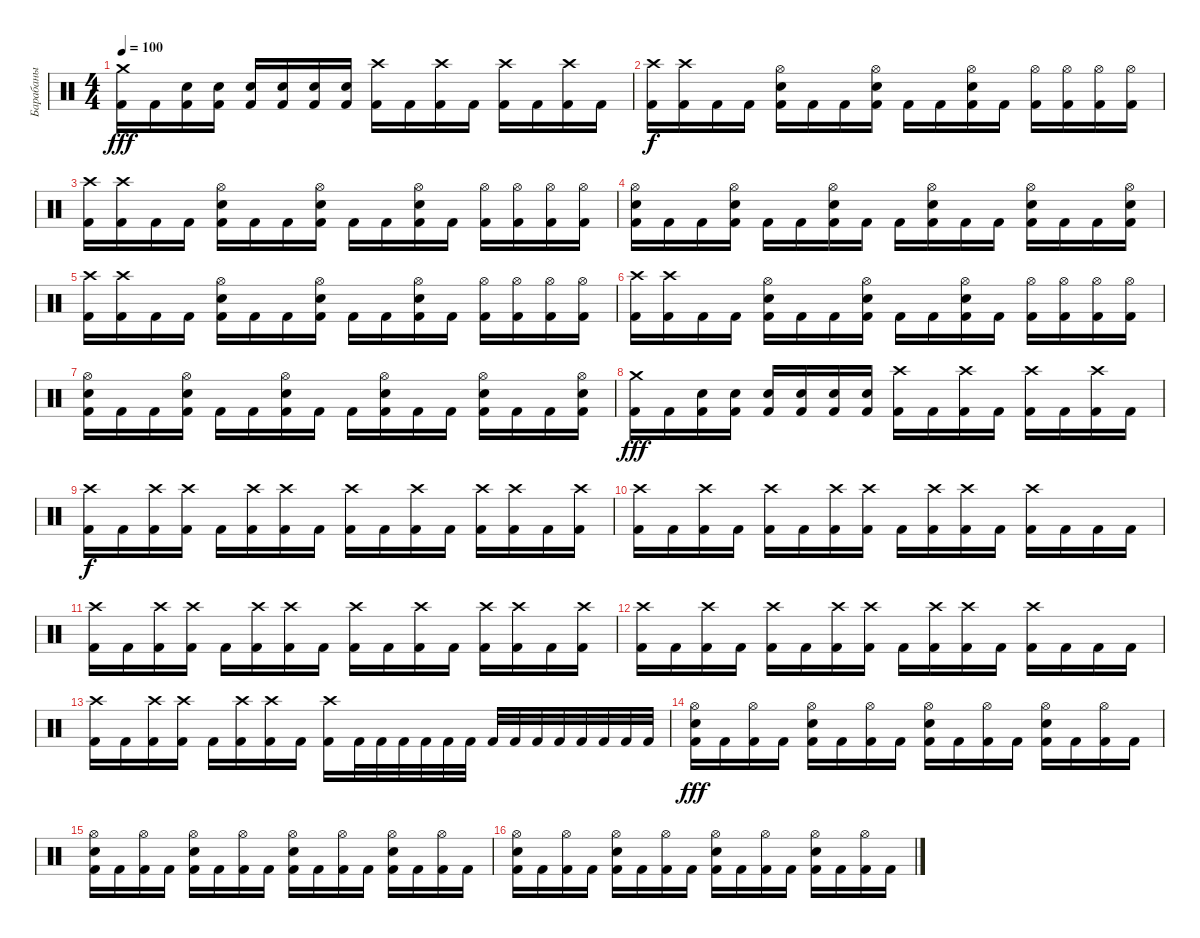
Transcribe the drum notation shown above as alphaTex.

\track ("Барабаны" "Барабаны") {instrument percussion}
\staff {score}
\articulation defaults
\ts (4 4)
\tempo 100
\clef neutral
\ks c
("Crash medium (hit)" "Kick (hit) 2").16{dy fff} "Kick (hit) 2".16 ("Electric Snare (hit)" "Kick (hit) 2").16 ("Electric Snare (hit)" "Kick (hit) 2").16 ("Electric Snare (hit)" "Kick (hit) 2").16 ("Electric Snare (hit)" "Kick (hit) 2").16 ("Electric Snare (hit)" "Kick (hit) 2").16 ("Electric Snare (hit)" "Kick (hit) 2").16 ("Crash high (hit)" "Kick (hit) 2").16 "Kick (hit) 2".16 ("Crash high (hit)" "Kick (hit) 2").16 "Kick (hit) 2".16 ("Crash high (hit)" "Kick (hit) 2").16 "Kick (hit) 2".16 ("Crash high (hit)" "Kick (hit) 2").16 "Kick (hit) 2".16 |
("Crash high (hit)" "Kick (hit) 2").16{dy f} ("Crash high (hit)" "Kick (hit) 2").16 "Kick (hit) 2".16 "Kick (hit) 2".16 ("Hi-Hat (open)" "Electric Snare (hit)" "Kick (hit) 2").16 "Kick (hit) 2".16 "Kick (hit) 2".16 ("Hi-Hat (open)" "Electric Snare (hit)" "Kick (hit) 2").16 "Kick (hit) 2".16 "Kick (hit) 2".16 ("Hi-Hat (open)" "Electric Snare (hit)" "Kick (hit) 2").16 "Kick (hit) 2".16 ("Hi-Hat (open)" "Kick (hit) 2").16 ("Hi-Hat (open)" "Kick (hit) 2").16 ("Hi-Hat (open)" "Kick (hit) 2").16 ("Hi-Hat (open)" "Kick (hit) 2").16 |
("Crash high (hit)" "Kick (hit) 2").16 ("Crash high (hit)" "Kick (hit) 2").16 "Kick (hit) 2".16 "Kick (hit) 2".16 ("Hi-Hat (open)" "Electric Snare (hit)" "Kick (hit) 2").16 "Kick (hit) 2".16 "Kick (hit) 2".16 ("Hi-Hat (open)" "Electric Snare (hit)" "Kick (hit) 2").16 "Kick (hit) 2".16 "Kick (hit) 2".16 ("Hi-Hat (open)" "Electric Snare (hit)" "Kick (hit) 2").16 "Kick (hit) 2".16 ("Hi-Hat (open)" "Kick (hit) 2").16 ("Hi-Hat (open)" "Kick (hit) 2").16 ("Hi-Hat (open)" "Kick (hit) 2").16 ("Hi-Hat (open)" "Kick (hit) 2").16 |
("Hi-Hat (open)" "Electric Snare (hit)" "Kick (hit) 2").16 "Kick (hit) 2".16 "Kick (hit) 2".16 ("Hi-Hat (open)" "Electric Snare (hit)" "Kick (hit) 2").16 "Kick (hit) 2".16 "Kick (hit) 2".16 ("Hi-Hat (open)" "Electric Snare (hit)" "Kick (hit) 2").16 "Kick (hit) 2".16 "Kick (hit) 2".16 ("Hi-Hat (open)" "Electric Snare (hit)" "Kick (hit) 2").16 "Kick (hit) 2".16 "Kick (hit) 2".16 ("Hi-Hat (open)" "Electric Snare (hit)" "Kick (hit) 2").16 "Kick (hit) 2".16 "Kick (hit) 2".16 ("Hi-Hat (open)" "Electric Snare (hit)" "Kick (hit) 2").16 |
("Crash high (hit)" "Kick (hit) 2").16 ("Crash high (hit)" "Kick (hit) 2").16 "Kick (hit) 2".16 "Kick (hit) 2".16 ("Hi-Hat (open)" "Electric Snare (hit)" "Kick (hit) 2").16 "Kick (hit) 2".16 "Kick (hit) 2".16 ("Hi-Hat (open)" "Electric Snare (hit)" "Kick (hit) 2").16 "Kick (hit) 2".16 "Kick (hit) 2".16 ("Hi-Hat (open)" "Electric Snare (hit)" "Kick (hit) 2").16 "Kick (hit) 2".16 ("Hi-Hat (open)" "Kick (hit) 2").16 ("Hi-Hat (open)" "Kick (hit) 2").16 ("Hi-Hat (open)" "Kick (hit) 2").16 ("Hi-Hat (open)" "Kick (hit) 2").16 |
("Crash high (hit)" "Kick (hit) 2").16 ("Crash high (hit)" "Kick (hit) 2").16 "Kick (hit) 2".16 "Kick (hit) 2".16 ("Hi-Hat (open)" "Electric Snare (hit)" "Kick (hit) 2").16 "Kick (hit) 2".16 "Kick (hit) 2".16 ("Hi-Hat (open)" "Electric Snare (hit)" "Kick (hit) 2").16 "Kick (hit) 2".16 "Kick (hit) 2".16 ("Hi-Hat (open)" "Electric Snare (hit)" "Kick (hit) 2").16 "Kick (hit) 2".16 ("Hi-Hat (open)" "Kick (hit) 2").16 ("Hi-Hat (open)" "Kick (hit) 2").16 ("Hi-Hat (open)" "Kick (hit) 2").16 ("Hi-Hat (open)" "Kick (hit) 2").16 |
("Hi-Hat (open)" "Electric Snare (hit)" "Kick (hit) 2").16 "Kick (hit) 2".16 "Kick (hit) 2".16 ("Hi-Hat (open)" "Electric Snare (hit)" "Kick (hit) 2").16 "Kick (hit) 2".16 "Kick (hit) 2".16 ("Hi-Hat (open)" "Electric Snare (hit)" "Kick (hit) 2").16 "Kick (hit) 2".16 "Kick (hit) 2".16 ("Hi-Hat (open)" "Electric Snare (hit)" "Kick (hit) 2").16 "Kick (hit) 2".16 "Kick (hit) 2".16 ("Hi-Hat (open)" "Electric Snare (hit)" "Kick (hit) 2").16 "Kick (hit) 2".16 "Kick (hit) 2".16 ("Hi-Hat (open)" "Electric Snare (hit)" "Kick (hit) 2").16 |
("Crash medium (hit)" "Kick (hit) 2").16{dy fff} "Kick (hit) 2".16 ("Electric Snare (hit)" "Kick (hit) 2").16 ("Electric Snare (hit)" "Kick (hit) 2").16 ("Electric Snare (hit)" "Kick (hit) 2").16 ("Electric Snare (hit)" "Kick (hit) 2").16 ("Electric Snare (hit)" "Kick (hit) 2").16 ("Electric Snare (hit)" "Kick (hit) 2").16 ("Crash high (hit)" "Kick (hit) 2").16 "Kick (hit) 2".16 ("Crash high (hit)" "Kick (hit) 2").16 "Kick (hit) 2".16 ("Crash high (hit)" "Kick (hit) 2").16 "Kick (hit) 2".16 ("Crash high (hit)" "Kick (hit) 2").16 "Kick (hit) 2".16 |
("Crash high (hit)" "Kick (hit) 2").16{dy f} "Kick (hit) 2".16 ("Crash high (hit)" "Kick (hit) 2").16 ("Crash high (hit)" "Kick (hit) 2").16 "Kick (hit) 2".16 ("Crash high (hit)" "Kick (hit) 2").16 ("Crash high (hit)" "Kick (hit) 2").16 "Kick (hit) 2".16 ("Crash high (hit)" "Kick (hit) 2").16 "Kick (hit) 2".16 ("Crash high (hit)" "Kick (hit) 2").16 "Kick (hit) 2".16 ("Crash high (hit)" "Kick (hit) 2").16 ("Crash high (hit)" "Kick (hit) 2").16 "Kick (hit) 2".16 ("Crash high (hit)" "Kick (hit) 2").16 |
("Crash high (hit)" "Kick (hit) 2").16 "Kick (hit) 2".16 ("Crash high (hit)" "Kick (hit) 2").16 "Kick (hit) 2".16 ("Crash high (hit)" "Kick (hit) 2").16 "Kick (hit) 2".16 ("Crash high (hit)" "Kick (hit) 2").16 ("Crash high (hit)" "Kick (hit) 2").16 "Kick (hit) 2".16 ("Crash high (hit)" "Kick (hit) 2").16 ("Crash high (hit)" "Kick (hit) 2").16 "Kick (hit) 2".16 ("Crash high (hit)" "Kick (hit) 2").16 "Kick (hit) 2".16 "Kick (hit) 2".16 "Kick (hit) 2".16 |
("Crash high (hit)" "Kick (hit) 2").16 "Kick (hit) 2".16 ("Crash high (hit)" "Kick (hit) 2").16 ("Crash high (hit)" "Kick (hit) 2").16 "Kick (hit) 2".16 ("Crash high (hit)" "Kick (hit) 2").16 ("Crash high (hit)" "Kick (hit) 2").16 "Kick (hit) 2".16 ("Crash high (hit)" "Kick (hit) 2").16 "Kick (hit) 2".16 ("Crash high (hit)" "Kick (hit) 2").16 "Kick (hit) 2".16 ("Crash high (hit)" "Kick (hit) 2").16 ("Crash high (hit)" "Kick (hit) 2").16 "Kick (hit) 2".16 ("Crash high (hit)" "Kick (hit) 2").16 |
("Crash high (hit)" "Kick (hit) 2").16 "Kick (hit) 2".16 ("Crash high (hit)" "Kick (hit) 2").16 "Kick (hit) 2".16 ("Crash high (hit)" "Kick (hit) 2").16 "Kick (hit) 2".16 ("Crash high (hit)" "Kick (hit) 2").16 ("Crash high (hit)" "Kick (hit) 2").16 "Kick (hit) 2".16 ("Crash high (hit)" "Kick (hit) 2").16 ("Crash high (hit)" "Kick (hit) 2").16 "Kick (hit) 2".16 ("Crash high (hit)" "Kick (hit) 2").16 "Kick (hit) 2".16 "Kick (hit) 2".16 "Kick (hit) 2".16 |
("Crash high (hit)" "Kick (hit) 2").16 "Kick (hit) 2".16 ("Crash high (hit)" "Kick (hit) 2").16 ("Crash high (hit)" "Kick (hit) 2").16 "Kick (hit) 2".16 ("Crash high (hit)" "Kick (hit) 2").16 ("Crash high (hit)" "Kick (hit) 2").16 "Kick (hit) 2".16 ("Crash high (hit)" "Kick (hit) 2").16 "Kick (hit) 2".32 "Kick (hit) 2".32 "Kick (hit) 2".32 "Kick (hit) 2".32 "Kick (hit) 2".32 "Kick (hit) 2".32 "Kick (hit) 2".32 "Kick (hit) 2".32 "Kick (hit) 2".32 "Kick (hit) 2".32 "Kick (hit) 2".32 "Kick (hit) 2".32 "Kick (hit) 2".32 "Kick (hit) 2".32 |
("Hi-Hat (open)" "Electric Snare (hit)" "Kick (hit) 2").16{dy fff} "Kick (hit) 2".16 ("Hi-Hat (open)" "Kick (hit) 2").16 "Kick (hit) 2".16 ("Hi-Hat (open)" "Electric Snare (hit)" "Kick (hit) 2").16 "Kick (hit) 2".16 ("Hi-Hat (open)" "Kick (hit) 2").16 "Kick (hit) 2".16 ("Hi-Hat (open)" "Electric Snare (hit)" "Kick (hit) 2").16 "Kick (hit) 2".16 ("Hi-Hat (open)" "Kick (hit) 2").16 "Kick (hit) 2".16 ("Hi-Hat (open)" "Electric Snare (hit)" "Kick (hit) 2").16 "Kick (hit) 2".16 ("Hi-Hat (open)" "Kick (hit) 2").16 "Kick (hit) 2".16 |
("Hi-Hat (open)" "Electric Snare (hit)" "Kick (hit) 2").16 "Kick (hit) 2".16 ("Hi-Hat (open)" "Kick (hit) 2").16 "Kick (hit) 2".16 ("Hi-Hat (open)" "Electric Snare (hit)" "Kick (hit) 2").16 "Kick (hit) 2".16 ("Hi-Hat (open)" "Kick (hit) 2").16 "Kick (hit) 2".16 ("Hi-Hat (open)" "Electric Snare (hit)" "Kick (hit) 2").16 "Kick (hit) 2".16 ("Hi-Hat (open)" "Kick (hit) 2").16 "Kick (hit) 2".16 ("Hi-Hat (open)" "Electric Snare (hit)" "Kick (hit) 2").16 "Kick (hit) 2".16 ("Hi-Hat (open)" "Kick (hit) 2").16 "Kick (hit) 2".16 |
("Hi-Hat (open)" "Electric Snare (hit)" "Kick (hit) 2").16 "Kick (hit) 2".16 ("Hi-Hat (open)" "Kick (hit) 2").16 "Kick (hit) 2".16 ("Hi-Hat (open)" "Electric Snare (hit)" "Kick (hit) 2").16 "Kick (hit) 2".16 ("Hi-Hat (open)" "Kick (hit) 2").16 "Kick (hit) 2".16 ("Hi-Hat (open)" "Electric Snare (hit)" "Kick (hit) 2").16 "Kick (hit) 2".16 ("Hi-Hat (open)" "Kick (hit) 2").16 "Kick (hit) 2".16 ("Hi-Hat (open)" "Electric Snare (hit)" "Kick (hit) 2").16 "Kick (hit) 2".16 ("Hi-Hat (open)" "Kick (hit) 2").16 "Kick (hit) 2".16
